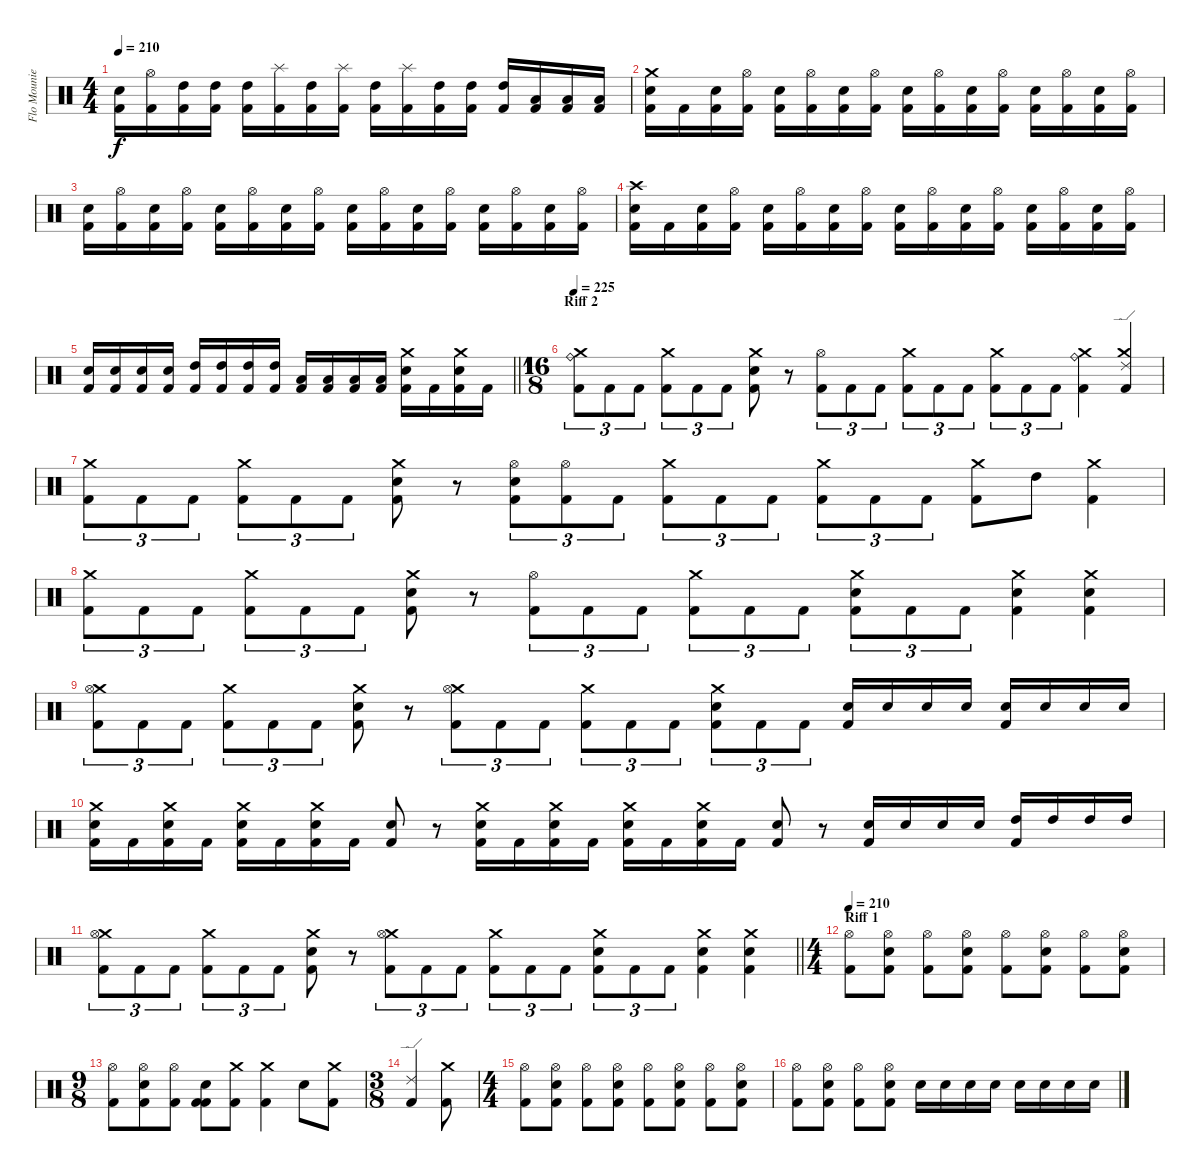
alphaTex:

\track ("Flo Mounier" "Flo Mounie") {instrument percussion}
\staff {score}
\articulation defaults
\ts (4 4)
\tempo 210
\clef neutral
\ks c
("Snare (hit) 2" "Kick (hit) 2").16{dy f} ("Hi-Hat (open)" "Kick (hit) 2").16 ("High Tom (hit)" "Kick (hit) 2").16 ("High Tom (hit)" "Kick (hit) 2").16 ("High Tom (hit)" "Kick (hit) 2").16 ("Splash (hit)" "Kick (hit) 2").16 ("High Tom (hit)" "Kick (hit) 2").16 ("Splash (hit)" "Kick (hit) 2").16 ("High Tom (hit)" "Kick (hit) 2").16 ("Splash (hit)" "Kick (hit) 2").16 ("High Tom (hit)" "Kick (hit) 2").16 ("High Tom (hit)" "Kick (hit) 2").16 ("High Tom (hit)" "Kick (hit) 2").16 ("Low Tom (hit)" "Kick (hit) 2").16 ("Low Tom (hit)" "Kick (hit) 2").16 ("Low Tom (hit)" "Kick (hit) 2").16 |
("Crash medium (hit)" "Snare (hit) 2" "Kick (hit) 2").16 "Kick (hit) 2".16 ("Snare (hit) 2" "Kick (hit) 2").16 ("Hi-Hat (open)" "Kick (hit) 2").16 ("Snare (hit) 2" "Kick (hit) 2").16 ("Hi-Hat (open)" "Kick (hit) 2").16 ("Snare (hit) 2" "Kick (hit) 2").16 ("Hi-Hat (open)" "Kick (hit) 2").16 ("Snare (hit) 2" "Kick (hit) 2").16 ("Hi-Hat (open)" "Kick (hit) 2").16 ("Snare (hit) 2" "Kick (hit) 2").16 ("Hi-Hat (open)" "Kick (hit) 2").16 ("Snare (hit) 2" "Kick (hit) 2").16 ("Hi-Hat (open)" "Kick (hit) 2").16 ("Snare (hit) 2" "Kick (hit) 2").16 ("Hi-Hat (open)" "Kick (hit) 2").16 |
("Snare (hit) 2" "Kick (hit) 2").16 ("Hi-Hat (open)" "Kick (hit) 2").16 ("Snare (hit) 2" "Kick (hit) 2").16 ("Hi-Hat (open)" "Kick (hit) 2").16 ("Snare (hit) 2" "Kick (hit) 2").16 ("Hi-Hat (open)" "Kick (hit) 2").16 ("Snare (hit) 2" "Kick (hit) 2").16 ("Hi-Hat (open)" "Kick (hit) 2").16 ("Snare (hit) 2" "Kick (hit) 2").16 ("Hi-Hat (open)" "Kick (hit) 2").16 ("Snare (hit) 2" "Kick (hit) 2").16 ("Hi-Hat (open)" "Kick (hit) 2").16 ("Snare (hit) 2" "Kick (hit) 2").16 ("Hi-Hat (open)" "Kick (hit) 2").16 ("Snare (hit) 2" "Kick (hit) 2").16 ("Hi-Hat (open)" "Kick (hit) 2").16 |
("Crash high (hit)" "Snare (hit) 2" "Kick (hit) 2").16 "Kick (hit) 2".16 ("Snare (hit) 2" "Kick (hit) 2").16 ("Hi-Hat (open)" "Kick (hit) 2").16 ("Snare (hit) 2" "Kick (hit) 2").16 ("Hi-Hat (open)" "Kick (hit) 2").16 ("Snare (hit) 2" "Kick (hit) 2").16 ("Hi-Hat (open)" "Kick (hit) 2").16 ("Snare (hit) 2" "Kick (hit) 2").16 ("Hi-Hat (open)" "Kick (hit) 2").16 ("Snare (hit) 2" "Kick (hit) 2").16 ("Hi-Hat (open)" "Kick (hit) 2").16 ("Snare (hit) 2" "Kick (hit) 2").16 ("Hi-Hat (open)" "Kick (hit) 2").16 ("Snare (hit) 2" "Kick (hit) 2").16 ("Hi-Hat (open)" "Kick (hit) 2").16 |
\barLineRight lightlight
("Snare (hit) 2" "Kick (hit) 2").16 ("Snare (hit) 2" "Kick (hit) 2").16 ("Snare (hit) 2" "Kick (hit) 2").16 ("Snare (hit) 2" "Kick (hit) 2").16 ("High Tom (hit)" "Kick (hit) 2").16 ("High Tom (hit)" "Kick (hit) 2").16 ("High Tom (hit)" "Kick (hit) 2").16 ("High Tom (hit)" "Kick (hit) 2").16 ("Low Tom (hit)" "Kick (hit) 2").16 ("Low Tom (hit)" "Kick (hit) 2").16 ("Low Tom (hit)" "Kick (hit) 2").16 ("Low Tom (hit)" "Kick (hit) 2").16 ("Crash medium (hit)" "Snare (hit) 2" "Kick (hit) 2").16 "Kick (hit) 2".16 ("Crash medium (hit)" "Snare (hit) 2" "Kick (hit) 2").16 "Kick (hit) 2".16 |
\ts (16 8)
\section ("" "Riff 2")
\tempo 225
("Crash medium (hit)" "Ride (bell)" "Kick (hit) 2").8{tu (3 2)} "Kick (hit) 2".8{tu (3 2)} "Kick (hit) 2".8{tu (3 2)} ("Crash medium (hit)" "Kick (hit) 2").8{tu (3 2)} "Kick (hit) 2".8{tu (3 2)} "Kick (hit) 2".8{tu (3 2)} ("Crash medium (hit)" "Snare (hit) 2" "Kick (hit) 2").8 r.8 ("Hi-Hat (open)" "Kick (hit) 2").8{tu (3 2)} "Kick (hit) 2".8{tu (3 2)} "Kick (hit) 2".8{tu (3 2)} ("Crash medium (hit)" "Kick (hit) 2").8{tu (3 2)} "Kick (hit) 2".8{tu (3 2)} "Kick (hit) 2".8{tu (3 2)} ("Crash medium (hit)" "Kick (hit) 2").8{tu (3 2)} "Kick (hit) 2".8{tu (3 2)} "Kick (hit) 2".8{tu (3 2)} ("Crash medium (hit)" "Ride (bell)" "Kick (hit) 2").4 ("Crash medium (hit)" "Ride (edge) 2" "Kick (hit) 2").4 |
("Crash medium (hit)" "Kick (hit) 2").8{tu (3 2)} "Kick (hit) 2".8{tu (3 2)} "Kick (hit) 2".8{tu (3 2)} ("Crash medium (hit)" "Kick (hit) 2").8{tu (3 2)} "Kick (hit) 2".8{tu (3 2)} "Kick (hit) 2".8{tu (3 2)} ("Crash medium (hit)" "Snare (hit) 2" "Kick (hit) 2").8 r.8 ("Hi-Hat (open)" "Snare (hit) 2" "Kick (hit) 2").8{tu (3 2)} ("Hi-Hat (open)" "Kick (hit) 2").8{tu (3 2)} "Kick (hit) 2".8{tu (3 2)} ("Crash medium (hit)" "Kick (hit) 2").8{tu (3 2)} "Kick (hit) 2".8{tu (3 2)} "Kick (hit) 2".8{tu (3 2)} ("Crash medium (hit)" "Kick (hit) 2").8{tu (3 2)} "Kick (hit) 2".8{tu (3 2)} "Kick (hit) 2".8{tu (3 2)} ("Crash medium (hit)" "Kick (hit) 2").8 "High Tom (hit)".8 ("Crash medium (hit)" "Kick (hit) 2").4 |
("Crash medium (hit)" "Kick (hit) 2").8{tu (3 2)} "Kick (hit) 2".8{tu (3 2)} "Kick (hit) 2".8{tu (3 2)} ("Crash medium (hit)" "Kick (hit) 2").8{tu (3 2)} "Kick (hit) 2".8{tu (3 2)} "Kick (hit) 2".8{tu (3 2)} ("Crash medium (hit)" "Snare (hit) 2" "Kick (hit) 2").8 r.8 ("Hi-Hat (open)" "Kick (hit) 2").8{tu (3 2)} "Kick (hit) 2".8{tu (3 2)} "Kick (hit) 2".8{tu (3 2)} ("Crash medium (hit)" "Kick (hit) 2").8{tu (3 2)} "Kick (hit) 2".8{tu (3 2)} "Kick (hit) 2".8{tu (3 2)} ("Crash medium (hit)" "Snare (hit) 2" "Kick (hit) 2").8{tu (3 2)} "Kick (hit) 2".8{tu (3 2)} "Kick (hit) 2".8{tu (3 2)} ("Crash medium (hit)" "Snare (hit) 2" "Kick (hit) 2").4 ("Crash medium (hit)" "Snare (hit) 2" "Kick (hit) 2").4 |
("Crash medium (hit)" "Hi-Hat (open)" "Kick (hit) 2").8{tu (3 2)} "Kick (hit) 2".8{tu (3 2)} "Kick (hit) 2".8{tu (3 2)} ("Crash medium (hit)" "Kick (hit) 2").8{tu (3 2)} "Kick (hit) 2".8{tu (3 2)} "Kick (hit) 2".8{tu (3 2)} ("Crash medium (hit)" "Snare (hit) 2" "Kick (hit) 2").8 r.8 ("Crash medium (hit)" "Hi-Hat (open)" "Kick (hit) 2").8{tu (3 2)} "Kick (hit) 2".8{tu (3 2)} "Kick (hit) 2".8{tu (3 2)} ("Crash medium (hit)" "Kick (hit) 2").8{tu (3 2)} "Kick (hit) 2".8{tu (3 2)} "Kick (hit) 2".8{tu (3 2)} ("Crash medium (hit)" "Snare (hit) 2" "Kick (hit) 2").8{tu (3 2)} "Kick (hit) 2".8{tu (3 2)} "Kick (hit) 2".8{tu (3 2)} ("Snare (hit) 2" "Kick (hit) 2").16 "Snare (hit) 2".16 "Snare (hit) 2".16 "Snare (hit) 2".16 ("Snare (hit) 2" "Kick (hit) 2").16 "Snare (hit) 2".16 "Snare (hit) 2".16 "Snare (hit) 2".16 |
("Crash medium (hit)" "Snare (hit) 2" "Kick (hit) 2").16 "Kick (hit) 2".16 ("Crash medium (hit)" "Snare (hit) 2" "Kick (hit) 2").16 "Kick (hit) 2".16 ("Crash medium (hit)" "Snare (hit) 2" "Kick (hit) 2").16 "Kick (hit) 2".16 ("Crash medium (hit)" "Snare (hit) 2" "Kick (hit) 2").16 "Kick (hit) 2".16 ("Snare (hit) 2" "Kick (hit) 2").8 r.8 ("Crash medium (hit)" "Snare (hit) 2" "Kick (hit) 2").16 "Kick (hit) 2".16 ("Crash medium (hit)" "Snare (hit) 2" "Kick (hit) 2").16 "Kick (hit) 2".16 ("Crash medium (hit)" "Snare (hit) 2" "Kick (hit) 2").16 "Kick (hit) 2".16 ("Crash medium (hit)" "Snare (hit) 2" "Kick (hit) 2").16 "Kick (hit) 2".16 ("Snare (hit) 2" "Kick (hit) 2").8 r.8 ("Snare (hit) 2" "Kick (hit) 2").16 "Snare (hit) 2".16 "Snare (hit) 2".16 "Snare (hit) 2".16 ("High Tom (hit)" "Kick (hit) 2").16 "High Tom (hit)".16 "High Tom (hit)".16 "High Tom (hit)".16 |
\barLineRight lightlight
("Crash medium (hit)" "Hi-Hat (open)" "Kick (hit) 2").8{tu (3 2)} "Kick (hit) 2".8{tu (3 2)} "Kick (hit) 2".8{tu (3 2)} ("Crash medium (hit)" "Kick (hit) 2").8{tu (3 2)} "Kick (hit) 2".8{tu (3 2)} "Kick (hit) 2".8{tu (3 2)} ("Crash medium (hit)" "Snare (hit) 2" "Kick (hit) 2").8 r.8 ("Crash medium (hit)" "Hi-Hat (open)" "Kick (hit) 2").8{tu (3 2)} "Kick (hit) 2".8{tu (3 2)} "Kick (hit) 2".8{tu (3 2)} ("Crash medium (hit)" "Kick (hit) 2").8{tu (3 2)} "Kick (hit) 2".8{tu (3 2)} "Kick (hit) 2".8{tu (3 2)} ("Crash medium (hit)" "Snare (hit) 2" "Kick (hit) 2").8{tu (3 2)} "Kick (hit) 2".8{tu (3 2)} "Kick (hit) 2".8{tu (3 2)} ("Crash medium (hit)" "Snare (hit) 2" "Kick (hit) 2").4 ("Crash medium (hit)" "Snare (hit) 2" "Kick (hit) 2").4 |
\ts (4 4)
\section ("" "Riff 1")
\tempo 210
("Hi-Hat (open)" "Kick (hit) 2").8 ("Hi-Hat (open)" "Snare (hit) 2" "Kick (hit) 2").8 ("Hi-Hat (open)" "Kick (hit) 2").8 ("Hi-Hat (open)" "Snare (hit) 2" "Kick (hit) 2").8 ("Hi-Hat (open)" "Kick (hit) 2").8 ("Hi-Hat (open)" "Snare (hit) 2" "Kick (hit) 2").8 ("Hi-Hat (open)" "Kick (hit) 2").8 ("Hi-Hat (open)" "Snare (hit) 2" "Kick (hit) 2").8 |
\ts (9 8)
("Hi-Hat (open)" "Kick (hit) 2").8 ("Hi-Hat (open)" "Snare (hit) 2" "Kick (hit) 2").8 ("Hi-Hat (open)" "Kick (hit) 2").8 ("Kick (hit) 2" "Snare (hit) 2" "Kick (hit) 2").8 ("Crash medium (hit)" "Kick (hit) 2").8 ("Crash medium (hit)" "Kick (hit) 2").4 "Snare (hit) 2".8 ("Crash medium (hit)" "Kick (hit) 2").8 |
\ts (3 8)
("Ride (edge) 2" "Kick (hit) 2").4 ("Crash medium (hit)" "Kick (hit) 2").8 |
\ts (4 4)
("Hi-Hat (open)" "Kick (hit) 2").8 ("Hi-Hat (open)" "Snare (hit) 2" "Kick (hit) 2").8 ("Hi-Hat (open)" "Kick (hit) 2").8 ("Hi-Hat (open)" "Snare (hit) 2" "Kick (hit) 2").8 ("Hi-Hat (open)" "Kick (hit) 2").8 ("Hi-Hat (open)" "Snare (hit) 2" "Kick (hit) 2").8 ("Hi-Hat (open)" "Kick (hit) 2").8 ("Hi-Hat (open)" "Snare (hit) 2" "Kick (hit) 2").8 |
("Hi-Hat (open)" "Kick (hit) 2").8 ("Hi-Hat (open)" "Snare (hit) 2" "Kick (hit) 2").8 ("Hi-Hat (open)" "Kick (hit) 2").8 ("Hi-Hat (open)" "Snare (hit) 2" "Kick (hit) 2").8 "Snare (hit) 2".16 "Snare (hit) 2".16 "Snare (hit) 2".16 "Snare (hit) 2".16 "Snare (hit) 2".16 "Snare (hit) 2".16 "Snare (hit) 2".16 "Snare (hit) 2".16
